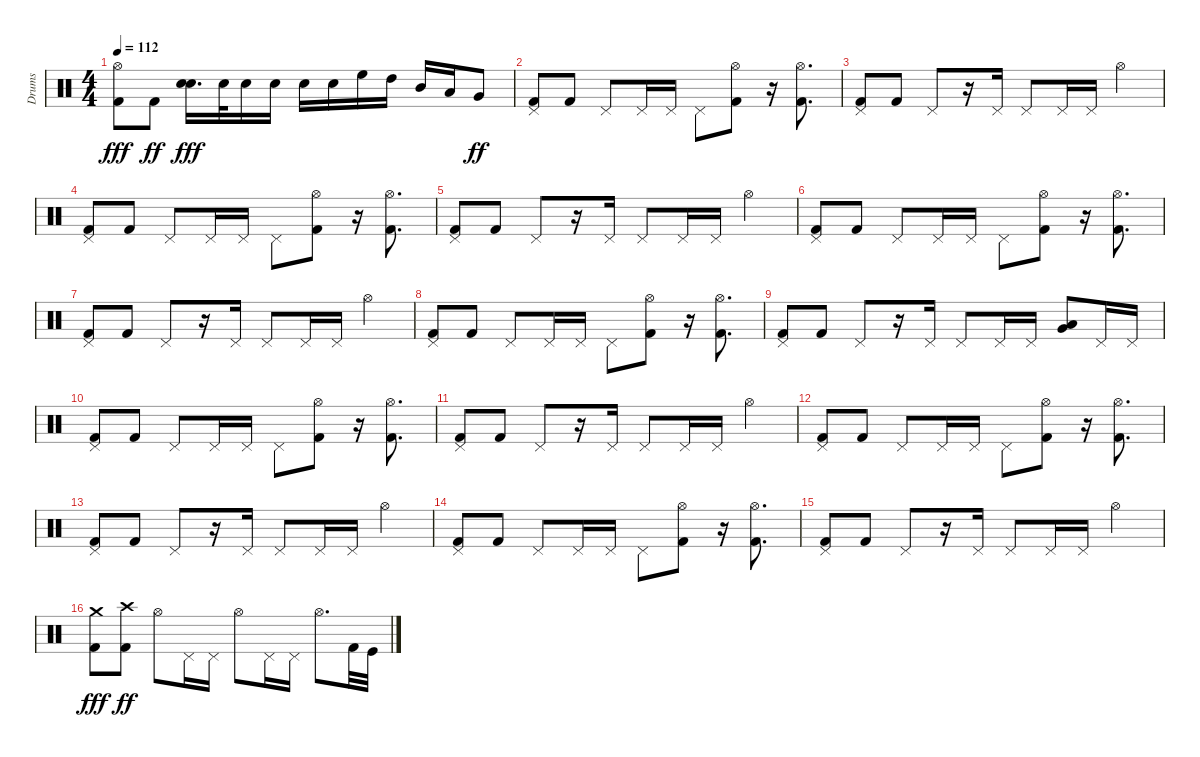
\track ("Drums" "Drums") {instrument percussion}
\staff {score}
\articulation defaults
\ts (4 4)
\tempo 112
\clef neutral
\ks c
("Kick (hit) 2" "Hi-Hat (open)").8{dy fff} "Kick (hit) 2".8{dy ff} ("Snare (hit) 2" "Electric Snare (hit)").16{d dy fff} "Electric Snare (hit)".32 "Electric Snare (hit)".16 "Electric Snare (hit)".16 "Snare (hit) 2".16 "Snare (hit) 2".16 "High Floor Tom (hit)".16 "High Tom (hit)".16 "Mid Tom (hit)".16 "Low Tom (hit)".16 "Very Low Tom (hit)".8{dy ff} |
("Kick (hit) 2" "Pedal Hi-Hat (hit)").8 "Kick (hit) 2".8 "Pedal Hi-Hat (hit)".8 "Pedal Hi-Hat (hit)".16 "Pedal Hi-Hat (hit)".16 "Pedal Hi-Hat (hit)".8 ("Kick (hit) 2" "Hi-Hat (open)").8 r.16 ("Kick (hit) 2" "Hi-Hat (open)").8{d} |
("Kick (hit) 2" "Pedal Hi-Hat (hit)").8 "Kick (hit) 2".8 "Pedal Hi-Hat (hit)".8 r.16 "Pedal Hi-Hat (hit)".16 "Pedal Hi-Hat (hit)".8 "Pedal Hi-Hat (hit)".16 "Pedal Hi-Hat (hit)".16 "Hi-Hat (open)".4 |
("Kick (hit) 2" "Pedal Hi-Hat (hit)").8 "Kick (hit) 2".8 "Pedal Hi-Hat (hit)".8 "Pedal Hi-Hat (hit)".16 "Pedal Hi-Hat (hit)".16 "Pedal Hi-Hat (hit)".8 ("Kick (hit) 2" "Hi-Hat (open)").8 r.16 ("Kick (hit) 2" "Hi-Hat (open)").8{d} |
("Kick (hit) 2" "Pedal Hi-Hat (hit)").8 "Kick (hit) 2".8 "Pedal Hi-Hat (hit)".8 r.16 "Pedal Hi-Hat (hit)".16 "Pedal Hi-Hat (hit)".8 "Pedal Hi-Hat (hit)".16 "Pedal Hi-Hat (hit)".16 "Hi-Hat (open)".4 |
("Kick (hit) 2" "Pedal Hi-Hat (hit)").8 "Kick (hit) 2".8 "Pedal Hi-Hat (hit)".8 "Pedal Hi-Hat (hit)".16 "Pedal Hi-Hat (hit)".16 "Pedal Hi-Hat (hit)".8 ("Kick (hit) 2" "Hi-Hat (open)").8 r.16 ("Kick (hit) 2" "Hi-Hat (open)").8{d} |
("Kick (hit) 2" "Pedal Hi-Hat (hit)").8 "Kick (hit) 2".8 "Pedal Hi-Hat (hit)".8 r.16 "Pedal Hi-Hat (hit)".16 "Pedal Hi-Hat (hit)".8 "Pedal Hi-Hat (hit)".16 "Pedal Hi-Hat (hit)".16 "Hi-Hat (open)".4 |
("Kick (hit) 2" "Pedal Hi-Hat (hit)").8 "Kick (hit) 2".8 "Pedal Hi-Hat (hit)".8 "Pedal Hi-Hat (hit)".16 "Pedal Hi-Hat (hit)".16 "Pedal Hi-Hat (hit)".8 ("Kick (hit) 2" "Hi-Hat (open)").8 r.16 ("Kick (hit) 2" "Hi-Hat (open)").8{d} |
("Kick (hit) 2" "Pedal Hi-Hat (hit)").8 "Kick (hit) 2".8 "Pedal Hi-Hat (hit)".8 r.16 "Pedal Hi-Hat (hit)".16 "Pedal Hi-Hat (hit)".8 "Pedal Hi-Hat (hit)".16 "Pedal Hi-Hat (hit)".16 ("Low Floor Tom (hit)" "Very Low Tom (hit)").8 "Pedal Hi-Hat (hit)".16 "Pedal Hi-Hat (hit)".16 |
("Kick (hit) 2" "Pedal Hi-Hat (hit)").8 "Kick (hit) 2".8 "Pedal Hi-Hat (hit)".8 "Pedal Hi-Hat (hit)".16 "Pedal Hi-Hat (hit)".16 "Pedal Hi-Hat (hit)".8 ("Kick (hit) 2" "Hi-Hat (open)").8 r.16 ("Kick (hit) 2" "Hi-Hat (open)").8{d} |
("Kick (hit) 2" "Pedal Hi-Hat (hit)").8 "Kick (hit) 2".8 "Pedal Hi-Hat (hit)".8 r.16 "Pedal Hi-Hat (hit)".16 "Pedal Hi-Hat (hit)".8 "Pedal Hi-Hat (hit)".16 "Pedal Hi-Hat (hit)".16 "Hi-Hat (open)".4 |
("Kick (hit) 2" "Pedal Hi-Hat (hit)").8 "Kick (hit) 2".8 "Pedal Hi-Hat (hit)".8 "Pedal Hi-Hat (hit)".16 "Pedal Hi-Hat (hit)".16 "Pedal Hi-Hat (hit)".8 ("Kick (hit) 2" "Hi-Hat (open)").8 r.16 ("Kick (hit) 2" "Hi-Hat (open)").8{d} |
("Kick (hit) 2" "Pedal Hi-Hat (hit)").8 "Kick (hit) 2".8 "Pedal Hi-Hat (hit)".8 r.16 "Pedal Hi-Hat (hit)".16 "Pedal Hi-Hat (hit)".8 "Pedal Hi-Hat (hit)".16 "Pedal Hi-Hat (hit)".16 "Hi-Hat (open)".4 |
("Kick (hit) 2" "Pedal Hi-Hat (hit)").8 "Kick (hit) 2".8 "Pedal Hi-Hat (hit)".8 "Pedal Hi-Hat (hit)".16 "Pedal Hi-Hat (hit)".16 "Pedal Hi-Hat (hit)".8 ("Kick (hit) 2" "Hi-Hat (open)").8 r.16 ("Kick (hit) 2" "Hi-Hat (open)").8{d} |
("Kick (hit) 2" "Pedal Hi-Hat (hit)").8 "Kick (hit) 2".8 "Pedal Hi-Hat (hit)".8 r.16 "Pedal Hi-Hat (hit)".16 "Pedal Hi-Hat (hit)".8 "Pedal Hi-Hat (hit)".16 "Pedal Hi-Hat (hit)".16 "Hi-Hat (open)".4 |
("Kick (hit) 2" "Crash medium (hit)").8{dy fff} ("Kick (hit) 2" "Crash high (hit)").8{dy ff} "Hi-Hat (open)".8 "Pedal Hi-Hat (hit)".16 "Pedal Hi-Hat (hit)".16 "Hi-Hat (open)".8 "Pedal Hi-Hat (hit)".16 "Pedal Hi-Hat (hit)".16 "Hi-Hat (open)".8{d} "Kick (hit) 2".32 "Kick (hit)".32
